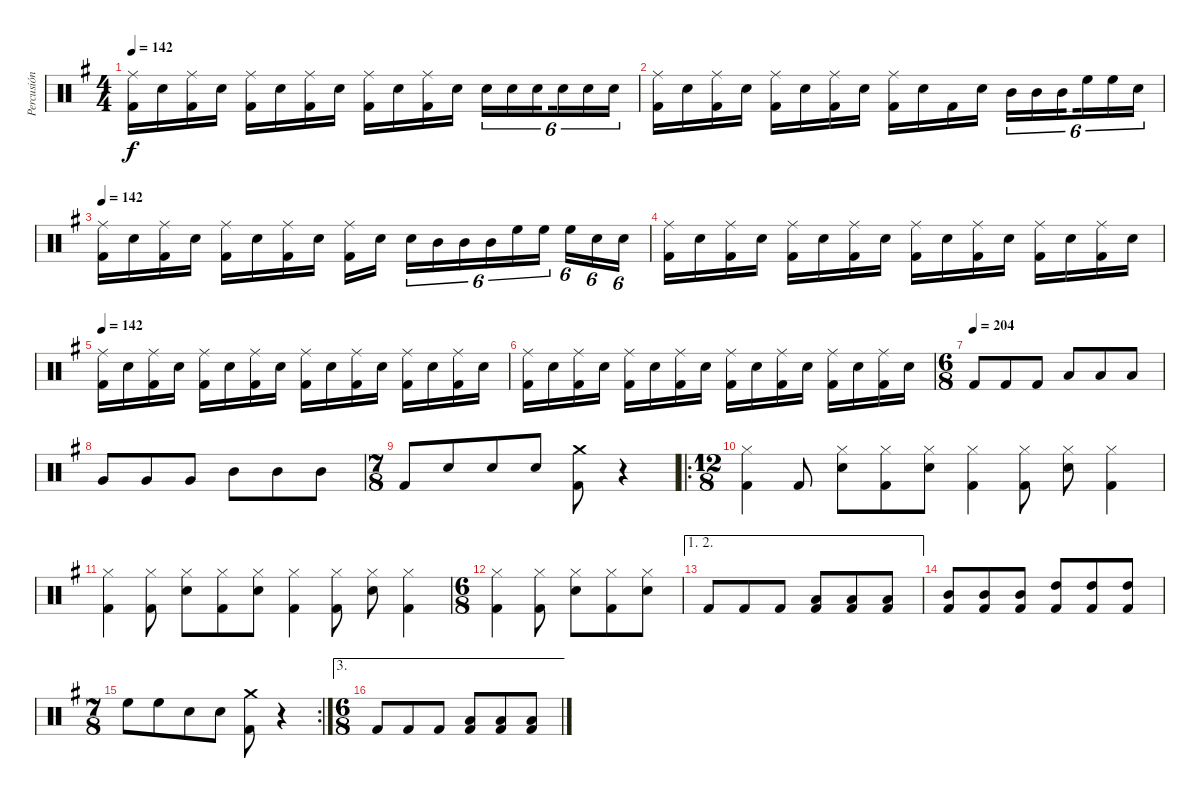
\track ("Percusión" "Percusión") {instrument percussion}
\staff {score}
\articulation defaults
\ts (4 4)
\tempo 142
\clef neutral
\ks g
("Ride (middle)" "Kick (hit) 2").16{dy f} "Electric Snare (hit)".16 ("Ride (middle)" "Kick (hit) 2").16 "Electric Snare (hit)".16 ("Ride (middle)" "Kick (hit) 2").16 "Electric Snare (hit)".16 ("Ride (middle)" "Kick (hit) 2").16 "Electric Snare (hit)".16 ("Ride (middle)" "Kick (hit) 2").16 "Electric Snare (hit)".16 ("Ride (middle)" "Kick (hit) 2").16 "Electric Snare (hit)".16 "Electric Snare (hit)".16{tu (6 4)} "Electric Snare (hit)".16{tu (6 4)} "Electric Snare (hit)".16{tu (6 4) beam splitsecondary} "Electric Snare (hit)".16{tu (6 4)} "Electric Snare (hit)".16{tu (6 4)} "Electric Snare (hit)".16{tu (6 4)} |
("Ride (middle)" "Kick (hit) 2").16 "Electric Snare (hit)".16 ("Ride (middle)" "Kick (hit) 2").16 "Electric Snare (hit)".16 ("Ride (middle)" "Kick (hit) 2").16 "Electric Snare (hit)".16 ("Ride (middle)" "Kick (hit) 2").16 "Electric Snare (hit)".16 ("Ride (middle)" "Kick (hit) 2").16 "Electric Snare (hit)".16 "Kick (hit) 2".16 "Electric Snare (hit)".16 "Mid Tom (hit)".16{tu (6 4)} "Mid Tom (hit)".16{tu (6 4)} "Mid Tom (hit)".16{tu (6 4) beam splitsecondary} "High Floor Tom (hit)".16{tu (6 4)} "High Floor Tom (hit)".16{tu (6 4)} "Electric Snare (hit)".16{tu (6 4)} |
\tempo 142
("Ride (middle)" "Kick (hit) 2").16 "Electric Snare (hit)".16 ("Ride (middle)" "Kick (hit) 2").16 "Electric Snare (hit)".16 ("Ride (middle)" "Kick (hit) 2").16 "Electric Snare (hit)".16 ("Ride (middle)" "Kick (hit) 2").16 "Electric Snare (hit)".16 ("Ride (middle)" "Kick (hit) 2").16 "Electric Snare (hit)".16{beam splitsecondary} "Electric Snare (hit)".16{tu (6 4)} "Mid Tom (hit)".16{tu (6 4)} "Mid Tom (hit)".16{tu (6 4)} "Mid Tom (hit)".16{tu (6 4)} "High Floor Tom (hit)".16{tu (6 4)} "High Floor Tom (hit)".16{tu (6 4) beam splitsecondary} "High Floor Tom (hit)".16{tu (6 4)} "Electric Snare (hit)".16{tu (6 4)} "Electric Snare (hit)".16{tu (6 4)} |
("Ride (middle)" "Kick (hit) 2").16 "Electric Snare (hit)".16 ("Ride (middle)" "Kick (hit) 2").16 "Electric Snare (hit)".16 ("Ride (middle)" "Kick (hit) 2").16 "Electric Snare (hit)".16 ("Ride (middle)" "Kick (hit) 2").16 "Electric Snare (hit)".16 ("Ride (middle)" "Kick (hit) 2").16 "Electric Snare (hit)".16 ("Ride (middle)" "Kick (hit) 2").16 "Electric Snare (hit)".16 ("Ride (middle)" "Kick (hit) 2").16 "Electric Snare (hit)".16 ("Ride (middle)" "Kick (hit) 2").16 "Electric Snare (hit)".16 |
\tempo 142
("Ride (middle)" "Kick (hit) 2").16 "Electric Snare (hit)".16 ("Ride (middle)" "Kick (hit) 2").16 "Electric Snare (hit)".16 ("Ride (middle)" "Kick (hit) 2").16 "Electric Snare (hit)".16 ("Ride (middle)" "Kick (hit) 2").16 "Electric Snare (hit)".16 ("Ride (middle)" "Kick (hit) 2").16 "Electric Snare (hit)".16 ("Ride (middle)" "Kick (hit) 2").16 "Electric Snare (hit)".16 ("Ride (middle)" "Kick (hit) 2").16 "Electric Snare (hit)".16 ("Ride (middle)" "Kick (hit) 2").16 "Electric Snare (hit)".16 |
("Ride (middle)" "Kick (hit) 2").16 "Electric Snare (hit)".16 ("Ride (middle)" "Kick (hit) 2").16 "Electric Snare (hit)".16 ("Ride (middle)" "Kick (hit) 2").16 "Electric Snare (hit)".16 ("Ride (middle)" "Kick (hit) 2").16 "Electric Snare (hit)".16 ("Ride (middle)" "Kick (hit) 2").16 "Electric Snare (hit)".16 ("Ride (middle)" "Kick (hit) 2").16 "Electric Snare (hit)".16 ("Ride (middle)" "Kick (hit) 2").16 "Electric Snare (hit)".16 ("Ride (middle)" "Kick (hit) 2").16 "Electric Snare (hit)".16 |
\ts (6 8)
\tempo (204)
"Kick (hit) 2".8 "Kick (hit) 2".8 "Kick (hit) 2".8 "Low Floor Tom (hit)".8 "Low Floor Tom (hit)".8 "Low Floor Tom (hit)".8 |
"Very Low Tom (hit)".8 "Very Low Tom (hit)".8 "Very Low Tom (hit)".8 "Mid Tom (hit)".8 "Mid Tom (hit)".8 "Mid Tom (hit)".8 |
\ts (7 8)
"Kick (hit) 2".8 "Electric Snare (hit)".8 "Electric Snare (hit)".8 "Electric Snare (hit)".8 ("Crash medium (hit)" "Kick (hit) 2").8 r.4 |
\ro
\ts (12 8)
("Hi-Hat (closed)" "Kick (hit) 2").4 "Kick (hit) 2".8 ("Hi-Hat (closed)" "Electric Snare (hit)").8 ("Hi-Hat (closed)" "Kick (hit) 2").8 ("Hi-Hat (closed)" "Electric Snare (hit)").8 ("Hi-Hat (closed)" "Kick (hit) 2").4 ("Hi-Hat (closed)" "Kick (hit) 2").8 ("Hi-Hat (closed)" "Electric Snare (hit)").8 ("Hi-Hat (closed)" "Kick (hit) 2").4 |
("Hi-Hat (closed)" "Kick (hit) 2").4 ("Hi-Hat (closed)" "Kick (hit) 2").8 ("Hi-Hat (closed)" "Electric Snare (hit)").8 ("Hi-Hat (closed)" "Kick (hit) 2").8 ("Hi-Hat (closed)" "Electric Snare (hit)").8 ("Hi-Hat (closed)" "Kick (hit) 2").4 ("Hi-Hat (closed)" "Kick (hit) 2").8 ("Hi-Hat (closed)" "Electric Snare (hit)").8 ("Hi-Hat (closed)" "Kick (hit) 2").4 |
\ts (6 8)
("Hi-Hat (closed)" "Kick (hit) 2").4 ("Hi-Hat (closed)" "Kick (hit) 2").8 ("Hi-Hat (closed)" "Electric Snare (hit)").8 ("Hi-Hat (closed)" "Kick (hit) 2").8 ("Hi-Hat (closed)" "Electric Snare (hit)").8 |
\ae (1 2)
"Kick (hit) 2".8 "Kick (hit) 2".8 "Kick (hit) 2".8 ("Low Floor Tom (hit)" "Kick (hit) 2").8 ("Low Floor Tom (hit)" "Kick (hit) 2").8 ("Low Floor Tom (hit)" "Kick (hit) 2").8 |
("Mid Tom (hit)" "Kick (hit) 2").8 ("Mid Tom (hit)" "Kick (hit) 2").8 ("Mid Tom (hit)" "Kick (hit) 2").8 ("High Tom (hit)" "Kick (hit) 2").8 ("High Tom (hit)" "Kick (hit) 2").8 ("High Tom (hit)" "Kick (hit) 2").8 |
\rc 2
\ts (7 8)
"High Floor Tom (hit)".8 "High Floor Tom (hit)".8 "Electric Snare (hit)".8 "Electric Snare (hit)".8 ("Crash medium (hit)" "Kick (hit) 2").8 r.4 |
\ae 3
\ts (6 8)
"Kick (hit) 2".8 "Kick (hit) 2".8 "Kick (hit) 2".8 ("Low Floor Tom (hit)" "Kick (hit) 2").8 ("Low Floor Tom (hit)" "Kick (hit) 2").8 ("Low Floor Tom (hit)" "Kick (hit) 2").8
